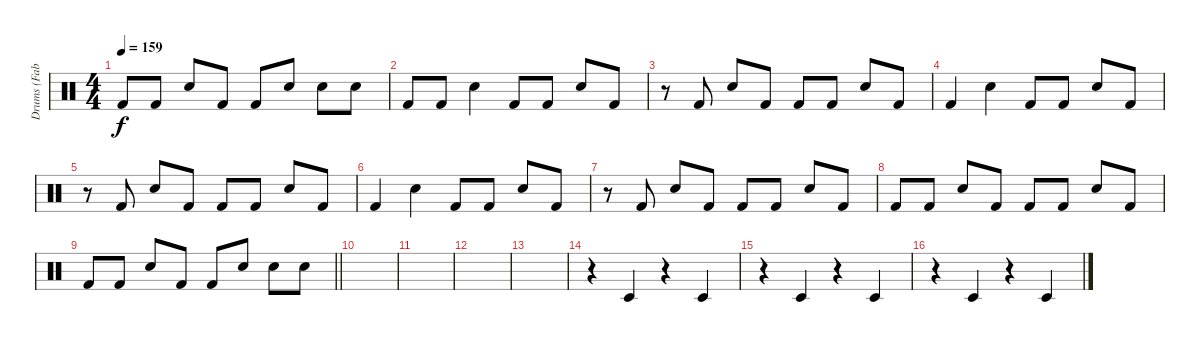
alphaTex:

\track ("Drums (Fabio)" "Drums (Fab") {instrument percussion}
\staff {score}
\articulation defaults
\ts (4 4)
\tempo 159
\clef neutral
\ks c "Kick (hit) 2".8{dy f} "Kick (hit) 2".8 "Snare (hit) 2".8 "Kick (hit) 2".8 "Kick (hit) 2".8 "Snare (hit) 2"{tr (38 16)}.8 "Snare (hit) 2"{tr (38 16)}.8 "Snare (hit) 2"{tr (38 16)}.8
|
"Kick (hit) 2".8 "Kick (hit) 2".8 "Snare (hit) 2".4 "Kick (hit) 2".8 "Kick (hit) 2".8 "Snare (hit) 2".8 "Kick (hit) 2".8 |
r.8 "Kick (hit) 2".8 "Snare (hit) 2".8 "Kick (hit) 2".8 "Kick (hit) 2".8 "Kick (hit) 2".8 "Snare (hit) 2".8 "Kick (hit) 2".8 |
"Kick (hit) 2".4 "Snare (hit) 2".4 "Kick (hit) 2".8 "Kick (hit) 2".8 "Snare (hit) 2".8 "Kick (hit) 2".8 |
r.8 "Kick (hit) 2".8 "Snare (hit) 2".8 "Kick (hit) 2".8 "Kick (hit) 2".8 "Kick (hit) 2".8 "Snare (hit) 2".8 "Kick (hit) 2".8 |
"Kick (hit) 2".4 "Snare (hit) 2".4 "Kick (hit) 2".8 "Kick (hit) 2".8 "Snare (hit) 2".8 "Kick (hit) 2".8 |
r.8 "Kick (hit) 2".8 "Snare (hit) 2".8 "Kick (hit) 2".8 "Kick (hit) 2".8 "Kick (hit) 2".8 "Snare (hit) 2".8 "Kick (hit) 2".8 |
"Kick (hit) 2".8 "Kick (hit) 2".8 "Snare (hit) 2".8 "Kick (hit) 2".8 "Kick (hit) 2".8 "Kick (hit) 2".8 "Snare (hit) 2".8 "Kick (hit) 2".8 |
\barLineRight lightlight "Kick (hit) 2".8 "Kick (hit) 2".8 "Snare (hit) 2".8 "Kick (hit) 2".8 "Kick (hit) 2".8 "Snare (hit) 2"{tr (38 16)}.8 "Snare (hit) 2"{tr (38 16)}.8 "Snare (hit) 2"{tr (38 16)}.8
|
|
|
|
|
r.4 "Timbale low (hit)".4{volume 3} r.4 "Timbale low (hit)".4{volume 5} |
r.4 "Timbale low (hit)".4{volume 8} r.4 "Timbale low (hit)".4{volume 9} |
r.4 "Timbale low (hit)".4{volume 12} r.4 "Timbale low (hit)".4{volume 14}
